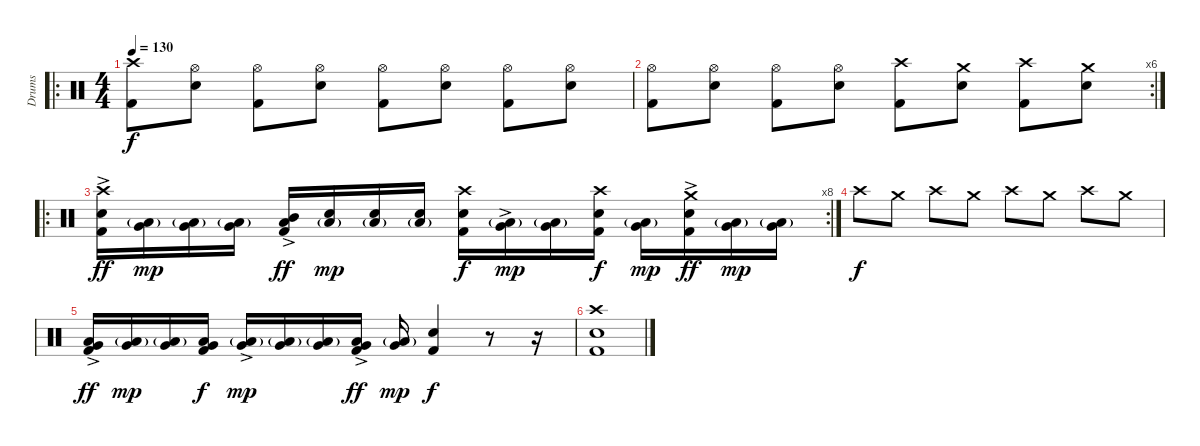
\track ("Drums" "Drums") {instrument percussion}
\staff {score}
\articulation defaults
\ro
\ts (4 4)
\tempo 130
\clef neutral
\ks c
("Crash high (hit)" "Kick (hit) 2").8{dy f} ("Hi-Hat (open)" "Snare (hit) 2").8 ("Hi-Hat (open)" "Kick (hit) 2").8 ("Hi-Hat (open)" "Snare (hit) 2").8 ("Hi-Hat (open)" "Kick (hit) 2").8 ("Hi-Hat (open)" "Snare (hit) 2").8 ("Hi-Hat (open)" "Kick (hit) 2").8 ("Hi-Hat (open)" "Snare (hit) 2").8 |
\rc 6
("Hi-Hat (open)" "Kick (hit) 2").8 ("Hi-Hat (open)" "Snare (hit) 2").8 ("Hi-Hat (open)" "Kick (hit) 2").8 ("Hi-Hat (open)" "Snare (hit) 2").8 ("Crash high (hit)" "Kick (hit) 2").8 ("Crash medium (hit)" "Snare (hit) 2").8 ("Crash high (hit)" "Kick (hit) 2").8 ("Crash medium (hit)" "Snare (hit) 2").8 |
\ro
\rc 8
("Crash high (hit)" "Snare (hit) 2"{ac} "Kick (hit) 2").16{dy ff} ("Very Low Tom (hit)" "Low Floor Tom (hit)"{g}).16{dy mp} ("Very Low Tom (hit)" "Low Floor Tom (hit)"{g}).16 ("Very Low Tom (hit)" "Low Floor Tom (hit)"{g}).16 ("Mid Tom (hit)"{ac} "Low Floor Tom (hit)" "Kick (hit) 2").16{dy ff} ("Snare (hit) 2" "Low Floor Tom (hit)"{g}).16{dy mp} ("Snare (hit) 2" "Low Floor Tom (hit)"{g}).16 ("Snare (hit) 2" "Low Floor Tom (hit)"{g}).16 ("Crash high (hit)" "Snare (hit) 2" "Kick (hit) 2").16{dy f} ("Very Low Tom (hit)"{ac} "Low Floor Tom (hit)"{g}).16{dy mp} ("Very Low Tom (hit)" "Low Floor Tom (hit)"{g}).16 ("Crash high (hit)" "Snare (hit) 2" "Kick (hit) 2").16{dy f} ("Very Low Tom (hit)" "Low Floor Tom (hit)"{g}).16{dy mp} ("Crash medium (hit)" "Snare (hit) 2"{ac} "Kick (hit) 2").16{dy ff} ("Very Low Tom (hit)" "Low Floor Tom (hit)"{g}).16{dy mp} ("Very Low Tom (hit)" "Low Floor Tom (hit)"{g}).16 |
"Crash high (hit)".8{dy f} "Crash medium (hit)".8 "Crash high (hit)".8 "Crash medium (hit)".8 "Crash high (hit)".8 "Crash medium (hit)".8 "Crash high (hit)".8 "Crash medium (hit)".8 |
("Very Low Tom (hit)"{ac} "Low Floor Tom (hit)" "Kick (hit) 2").16{dy ff} ("Very Low Tom (hit)" "Low Floor Tom (hit)"{g}).16{dy mp} ("Very Low Tom (hit)" "Low Floor Tom (hit)"{g}).16 ("Very Low Tom (hit)" "Low Floor Tom (hit)" "Kick (hit) 2").16{dy f} ("Very Low Tom (hit)"{ac} "Low Floor Tom (hit)"{g}).16{dy mp} ("Very Low Tom (hit)" "Low Floor Tom (hit)"{g}).16 ("Very Low Tom (hit)" "Low Floor Tom (hit)"{g}).16 ("Very Low Tom (hit)"{ac} "Low Floor Tom (hit)" "Kick (hit) 2").16{dy ff} ("Very Low Tom (hit)" "Low Floor Tom (hit)"{g}).16{dy mp} ("Snare (hit) 2" "Kick (hit) 2").4{dy f} r.8 r.16 |
("Crash high (hit)" "Snare (hit) 2" "Kick (hit) 2").1
